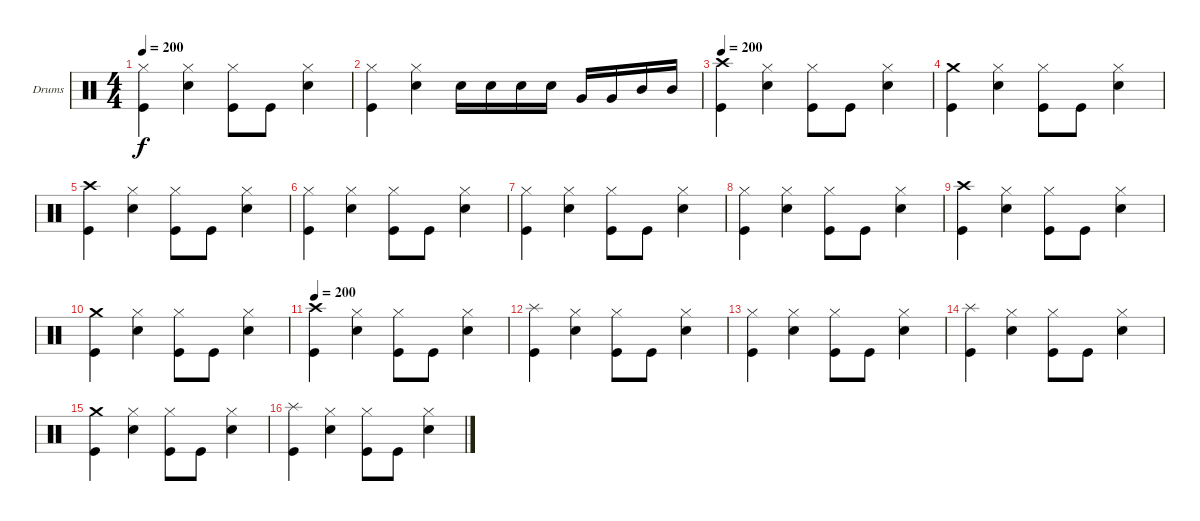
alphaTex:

\bracketExtendMode groupsimilarinstruments
\firstSystemTrackNameOrientation horizontal
\otherSystemsTrackNameOrientation horizontal
\track ("Drumkit" "Drums") {instrument percussion}
\staff {score}
\articulation defaults
\ts (4 4)
\tempo 200
\clef neutral
\ks c
("Hi-Hat (closed)" "Kick (hit)").4{dy f} ("Hi-Hat (closed)" "Snare (hit) 2").4 ("Hi-Hat (closed)" "Kick (hit)").8 "Kick (hit)".8 ("Hi-Hat (closed)" "Snare (hit) 2").4 |
("Hi-Hat (closed)" "Kick (hit)").4 ("Hi-Hat (closed)" "Snare (hit) 2").4 "Snare (hit) 2".16 "Snare (hit) 2".16 "Snare (hit) 2".16 "Snare (hit) 2".16 "Very Low Tom (hit)".16 "Very Low Tom (hit)".16 "Mid Tom (hit)".16 "Mid Tom (hit)".16 |
\tempo 200
("Crash high (hit)" "Kick (hit)").4 ("Hi-Hat (closed)" "Snare (hit) 2").4 ("Hi-Hat (closed)" "Kick (hit)").8 "Kick (hit)".8 ("Hi-Hat (closed)" "Snare (hit) 2").4 |
("Crash medium (hit)" "Kick (hit)").4 ("Hi-Hat (closed)" "Snare (hit) 2").4 ("Hi-Hat (closed)" "Kick (hit)").8 "Kick (hit)".8 ("Hi-Hat (closed)" "Snare (hit) 2").4 |
("Crash high (hit)" "Kick (hit)").4 ("Hi-Hat (closed)" "Snare (hit) 2").4 ("Hi-Hat (closed)" "Kick (hit)").8 "Kick (hit)".8 ("Hi-Hat (closed)" "Snare (hit) 2").4 |
("Hi-Hat (closed)" "Kick (hit)").4 ("Hi-Hat (closed)" "Snare (hit) 2").4 ("Hi-Hat (closed)" "Kick (hit)").8 "Kick (hit)".8 ("Hi-Hat (closed)" "Snare (hit) 2").4 |
("Hi-Hat (closed)" "Kick (hit)").4 ("Hi-Hat (closed)" "Snare (hit) 2").4 ("Hi-Hat (closed)" "Kick (hit)").8 "Kick (hit)".8 ("Hi-Hat (closed)" "Snare (hit) 2").4 |
("Hi-Hat (closed)" "Kick (hit)").4 ("Hi-Hat (closed)" "Snare (hit) 2").4 ("Hi-Hat (closed)" "Kick (hit)").8 "Kick (hit)".8 ("Hi-Hat (closed)" "Snare (hit) 2").4 |
("Crash high (hit)" "Kick (hit)").4 ("Hi-Hat (closed)" "Snare (hit) 2").4 ("Hi-Hat (closed)" "Kick (hit)").8 "Kick (hit)".8 ("Hi-Hat (closed)" "Snare (hit) 2").4 |
("Crash medium (hit)" "Kick (hit)").4 ("Hi-Hat (closed)" "Snare (hit) 2").4 ("Hi-Hat (closed)" "Kick (hit)").8 "Kick (hit)".8 ("Hi-Hat (closed)" "Snare (hit) 2").4 |
\tempo 200
("Crash high (hit)" "Kick (hit)").4 ("Hi-Hat (closed)" "Snare (hit) 2").4 ("Hi-Hat (closed)" "Kick (hit)").8 "Kick (hit)".8 ("Hi-Hat (closed)" "Snare (hit) 2").4 |
("Splash (hit)" "Kick (hit)").4 ("Hi-Hat (closed)" "Snare (hit) 2").4 ("Hi-Hat (closed)" "Kick (hit)").8 "Kick (hit)".8 ("Hi-Hat (closed)" "Snare (hit) 2").4 |
("Hi-Hat (closed)" "Kick (hit)").4 ("Hi-Hat (closed)" "Snare (hit) 2").4 ("Hi-Hat (closed)" "Kick (hit)").8 "Kick (hit)".8 ("Hi-Hat (closed)" "Snare (hit) 2").4 |
("Splash (hit)" "Kick (hit)").4 ("Hi-Hat (closed)" "Snare (hit) 2").4 ("Hi-Hat (closed)" "Kick (hit)").8 "Kick (hit)".8 ("Hi-Hat (closed)" "Snare (hit) 2").4 |
("Crash medium (hit)" "Kick (hit)").4 ("Hi-Hat (closed)" "Snare (hit) 2").4 ("Hi-Hat (closed)" "Kick (hit)").8 "Kick (hit)".8 ("Hi-Hat (closed)" "Snare (hit) 2").4 |
("Splash (hit)" "Kick (hit)").4 ("Hi-Hat (closed)" "Snare (hit) 2").4 ("Hi-Hat (closed)" "Kick (hit)").8 "Kick (hit)".8 ("Hi-Hat (closed)" "Snare (hit) 2").4
